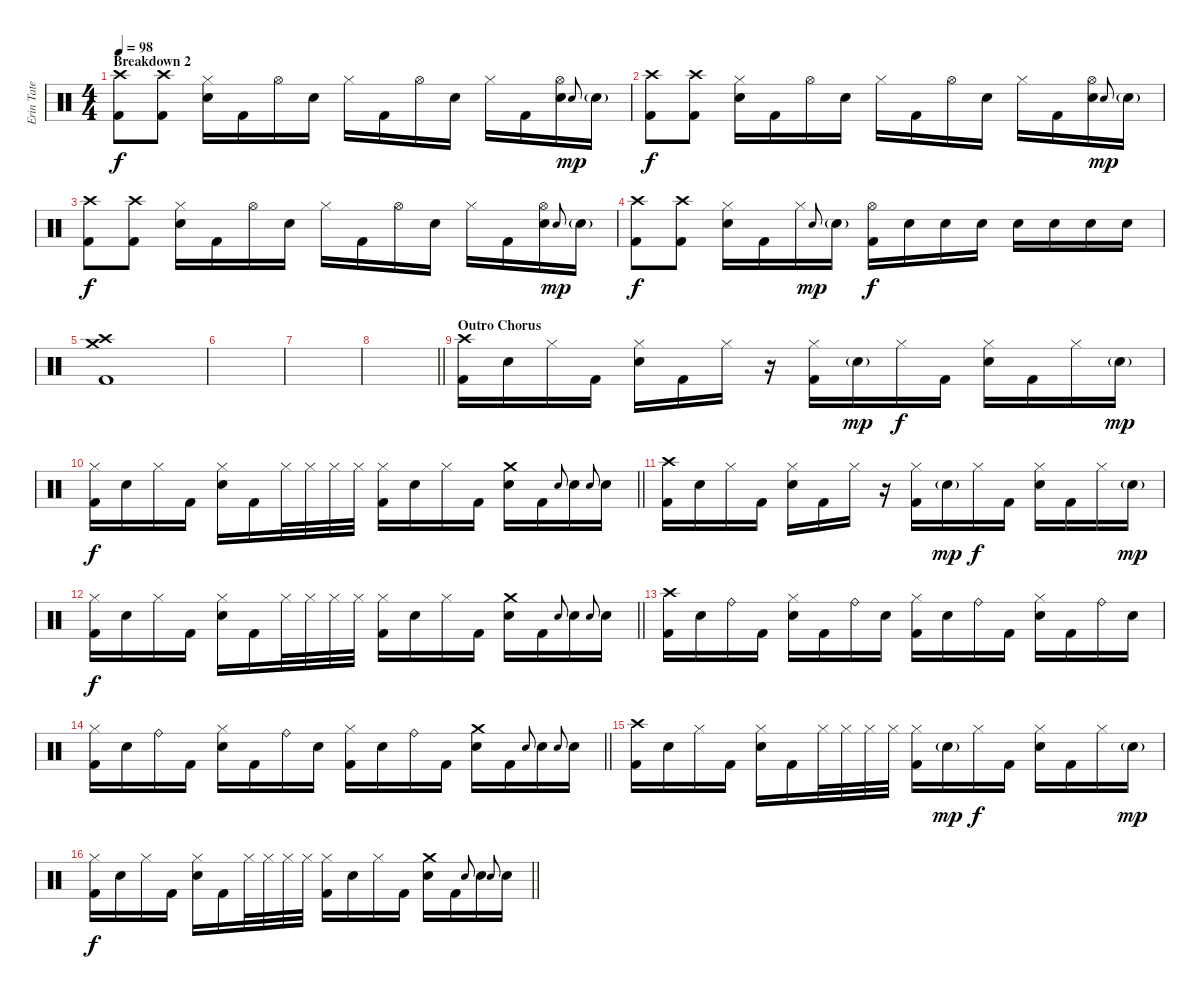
\track ("Erin Tate" "Erin Tate") {instrument percussion}
\staff {score}
\articulation defaults
\ts (4 4)
\section ("" "Breakdown 2")
\tempo 98
\clef neutral
\ks c
("Crash high (hit)" "Kick (hit) 2").8{dy f} ("Crash high (hit)" "Kick (hit) 2").8 ("Hi-Hat (closed)" "Electric Snare (hit)").16 "Kick (hit) 2".16 "Hi-Hat (open)".16 "Electric Snare (hit)".16 "Hi-Hat (closed)".16 "Kick (hit) 2".16 "Hi-Hat (open)".16 "Electric Snare (hit)".16 "Hi-Hat (closed)".16 "Kick (hit) 2".16 ("Hi-Hat (open)" "Electric Snare (hit)").16 "Electric Snare (hit)".8{gr onbeat dy mp} "Electric Snare (hit)"{g}.16 |
("Crash high (hit)" "Kick (hit) 2").8{dy f} ("Crash high (hit)" "Kick (hit) 2").8 ("Hi-Hat (closed)" "Electric Snare (hit)").16 "Kick (hit) 2".16 "Hi-Hat (open)".16 "Electric Snare (hit)".16 "Hi-Hat (closed)".16 "Kick (hit) 2".16 "Hi-Hat (open)".16 "Electric Snare (hit)".16 "Hi-Hat (closed)".16 "Kick (hit) 2".16 ("Hi-Hat (open)" "Electric Snare (hit)").16 "Electric Snare (hit)".8{gr onbeat dy mp} "Electric Snare (hit)"{g}.16 |
("Crash high (hit)" "Kick (hit) 2").8{dy f} ("Crash high (hit)" "Kick (hit) 2").8 ("Hi-Hat (closed)" "Electric Snare (hit)").16 "Kick (hit) 2".16 "Hi-Hat (open)".16 "Electric Snare (hit)".16 "Hi-Hat (closed)".16 "Kick (hit) 2".16 "Hi-Hat (open)".16 "Electric Snare (hit)".16 "Hi-Hat (closed)".16 "Kick (hit) 2".16 ("Hi-Hat (open)" "Electric Snare (hit)").16 "Electric Snare (hit)".8{gr onbeat dy mp} "Electric Snare (hit)"{g}.16 |
("Crash high (hit)" "Kick (hit) 2").8{dy f} ("Crash high (hit)" "Kick (hit) 2").8 ("Hi-Hat (closed)" "Electric Snare (hit)").16 "Kick (hit) 2".16 "Hi-Hat (closed)".16 "Electric Snare (hit)".8{gr onbeat dy mp} "Electric Snare (hit)"{g}.16 ("Hi-Hat (open)" "Kick (hit) 2").16{dy f} "Electric Snare (hit)".16 "Electric Snare (hit)".16 "Electric Snare (hit)".16 "Electric Snare (hit)".16 "Electric Snare (hit)".16 "Electric Snare (hit)".16 "Electric Snare (hit)".16 |
("Crash high (hit)" "Crash medium (hit)" "Kick (hit) 2").1 |
|
|
\barLineRight lightlight
|
\section ("" "Outro Chorus")
("Crash high (hit)" "Kick (hit) 2").16 "Electric Snare (hit)".16 "Hi-Hat (closed)".16 "Kick (hit) 2".16 ("Hi-Hat (closed)" "Electric Snare (hit)").16 "Kick (hit) 2".16 "Hi-Hat (closed)".16 r.16 ("Hi-Hat (closed)" "Kick (hit) 2").16 "Electric Snare (hit)"{g}.16{dy mp} "Hi-Hat (closed)".16{dy f} "Kick (hit) 2".16 ("Hi-Hat (closed)" "Electric Snare (hit)").16 "Kick (hit) 2".16 "Hi-Hat (closed)".16 "Electric Snare (hit)"{g}.16{dy mp} |
\barLineRight lightlight
("Hi-Hat (closed)" "Kick (hit) 2").16{dy f} "Electric Snare (hit)".16 "Hi-Hat (closed)".16 "Kick (hit) 2".16 ("Hi-Hat (closed)" "Electric Snare (hit)").16 "Kick (hit) 2".16 "Hi-Hat (closed)".32 "Hi-Hat (closed)".32 "Hi-Hat (closed)".32 "Hi-Hat (closed)".32 ("Hi-Hat (closed)" "Kick (hit) 2").16 "Electric Snare (hit)".16 "Hi-Hat (closed)".16 "Kick (hit) 2".16 ("Crash medium (hit)" "Electric Snare (hit)").16 "Kick (hit) 2".16 "Electric Snare (hit)".8{gr onbeat} "Electric Snare (hit)".16 "Electric Snare (hit)".8{gr onbeat} "Electric Snare (hit)".16 |
("Crash high (hit)" "Kick (hit) 2").16 "Electric Snare (hit)".16 "Hi-Hat (closed)".16 "Kick (hit) 2".16 ("Hi-Hat (closed)" "Electric Snare (hit)").16 "Kick (hit) 2".16 "Hi-Hat (closed)".16 r.16 ("Hi-Hat (closed)" "Kick (hit) 2").16 "Electric Snare (hit)"{g}.16{dy mp} "Hi-Hat (closed)".16{dy f} "Kick (hit) 2".16 ("Hi-Hat (closed)" "Electric Snare (hit)").16 "Kick (hit) 2".16 "Hi-Hat (closed)".16 "Electric Snare (hit)"{g}.16{dy mp} |
\barLineRight lightlight
("Hi-Hat (closed)" "Kick (hit) 2").16{dy f} "Electric Snare (hit)".16 "Hi-Hat (closed)".16 "Kick (hit) 2".16 ("Hi-Hat (closed)" "Electric Snare (hit)").16 "Kick (hit) 2".16 "Hi-Hat (closed)".32 "Hi-Hat (closed)".32 "Hi-Hat (closed)".32 "Hi-Hat (closed)".32 ("Hi-Hat (closed)" "Kick (hit) 2").16 "Electric Snare (hit)".16 "Hi-Hat (closed)".16 "Kick (hit) 2".16 ("Crash medium (hit)" "Electric Snare (hit)").16 "Kick (hit) 2".16 "Electric Snare (hit)".8{gr onbeat} "Electric Snare (hit)".16 "Electric Snare (hit)".8{gr onbeat} "Electric Snare (hit)".16 |
("Crash high (hit)" "Kick (hit) 2").16 "Electric Snare (hit)".16 "Ride (bell)".16 "Kick (hit) 2".16 ("Hi-Hat (closed)" "Electric Snare (hit)").16 "Kick (hit) 2".16 "Ride (bell)".16 "Electric Snare (hit)".16 ("Hi-Hat (closed)" "Kick (hit) 2").16 "Electric Snare (hit)".16 "Ride (bell)".16 "Kick (hit) 2".16 ("Hi-Hat (closed)" "Electric Snare (hit)").16 "Kick (hit) 2".16 "Ride (bell)".16 "Electric Snare (hit)".16 |
\barLineRight lightlight
("Hi-Hat (closed)" "Kick (hit) 2").16 "Electric Snare (hit)".16 "Ride (bell)".16 "Kick (hit) 2".16 ("Hi-Hat (closed)" "Electric Snare (hit)").16 "Kick (hit) 2".16 "Ride (bell)".16 "Electric Snare (hit)".16 ("Hi-Hat (closed)" "Kick (hit) 2").16 "Electric Snare (hit)".16 "Ride (bell)".16 "Kick (hit) 2".16 ("Crash medium (hit)" "Electric Snare (hit)").16 "Kick (hit) 2".16 "Electric Snare (hit)".8{gr onbeat} "Electric Snare (hit)".16 "Electric Snare (hit)".8{gr onbeat} "Electric Snare (hit)".16 |
("Crash high (hit)" "Kick (hit) 2").16 "Electric Snare (hit)".16 "Hi-Hat (closed)".16 "Kick (hit) 2".16 ("Hi-Hat (closed)" "Electric Snare (hit)").16 "Kick (hit) 2".16 "Hi-Hat (closed)".32 "Hi-Hat (closed)".32 "Hi-Hat (closed)".32 "Hi-Hat (closed)".32 ("Hi-Hat (closed)" "Kick (hit) 2").16 "Electric Snare (hit)"{g}.16{dy mp} "Hi-Hat (closed)".16{dy f} "Kick (hit) 2".16 ("Hi-Hat (closed)" "Electric Snare (hit)").16 "Kick (hit) 2".16 "Hi-Hat (closed)".16 "Electric Snare (hit)"{g}.16{dy mp} |
\barLineRight lightlight
("Hi-Hat (closed)" "Kick (hit) 2").16{dy f} "Electric Snare (hit)".16 "Hi-Hat (closed)".16 "Kick (hit) 2".16 ("Hi-Hat (closed)" "Electric Snare (hit)").16 "Kick (hit) 2".16 "Hi-Hat (closed)".32 "Hi-Hat (closed)".32 "Hi-Hat (closed)".32 "Hi-Hat (closed)".32 ("Hi-Hat (closed)" "Kick (hit) 2").16 "Electric Snare (hit)".16 "Hi-Hat (closed)".16 "Kick (hit) 2".16 ("Crash medium (hit)" "Electric Snare (hit)").16 "Kick (hit) 2".16 "Electric Snare (hit)".8{gr onbeat} "Electric Snare (hit)".16 "Electric Snare (hit)".8{gr onbeat} "Electric Snare (hit)".16
